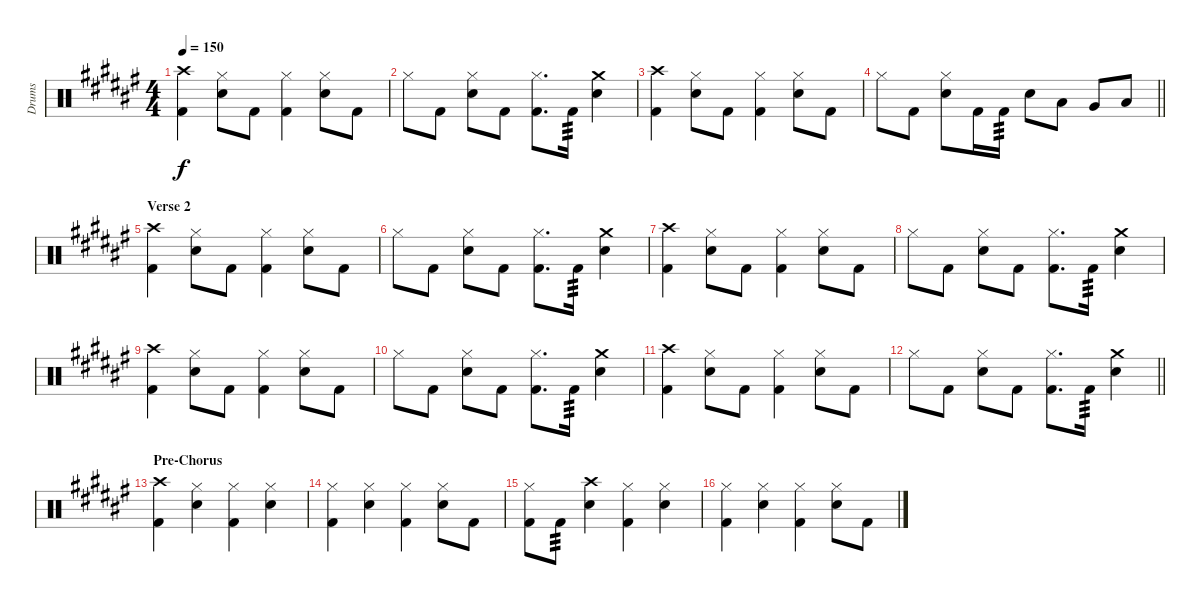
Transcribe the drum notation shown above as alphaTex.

\track ("Drums" "Drums") {instrument percussion}
\staff {score}
\articulation defaults
\ts (4 4)
\tempo 150
\clef neutral
\ks f#
("Crash high (hit)" "Kick (hit) 2").4{dy f} ("Electric Snare (hit)" "Hi-Hat (closed)").8 "Kick (hit) 2".8 ("Hi-Hat (closed)" "Kick (hit) 2").4 ("Electric Snare (hit)" "Hi-Hat (closed)").8 "Kick (hit) 2".8 |
"Hi-Hat (closed)".8 "Kick (hit) 2".8 ("Electric Snare (hit)" "Hi-Hat (closed)").8 "Kick (hit) 2".8 ("Hi-Hat (closed)" "Kick (hit) 2").8{d} "Kick (hit) 2".16{tp 3} ("Crash medium (hit)" "Electric Snare (hit)").4 |
("Crash high (hit)" "Kick (hit) 2").4 ("Electric Snare (hit)" "Hi-Hat (closed)").8 "Kick (hit) 2".8 ("Hi-Hat (closed)" "Kick (hit) 2").4 ("Electric Snare (hit)" "Hi-Hat (closed)").8 "Kick (hit) 2".8 |
\barLineRight lightlight "Hi-Hat (closed)".8 "Kick (hit) 2".8
("Electric Snare (hit)" "Hi-Hat (closed)").8 "Kick (hit) 2".16 "Kick (hit) 2".16{tp 3} "Electric Snare (hit)".8 "Low Floor Tom (hit)".8 "Very Low Tom (hit)".8 "Low Floor Tom (hit)".8 |
\section ("" "Verse 2")
("Crash high (hit)" "Kick (hit) 2").4 ("Electric Snare (hit)" "Hi-Hat (closed)").8 "Kick (hit) 2".8 ("Hi-Hat (closed)" "Kick (hit) 2").4 ("Electric Snare (hit)" "Hi-Hat (closed)").8 "Kick (hit) 2".8 |
"Hi-Hat (closed)".8 "Kick (hit) 2".8 ("Electric Snare (hit)" "Hi-Hat (closed)").8 "Kick (hit) 2".8 ("Hi-Hat (closed)" "Kick (hit) 2").8{d} "Kick (hit) 2".16{tp 3} ("Crash medium (hit)" "Electric Snare (hit)").4 |
("Crash high (hit)" "Kick (hit) 2").4 ("Electric Snare (hit)" "Hi-Hat (closed)").8 "Kick (hit) 2".8 ("Hi-Hat (closed)" "Kick (hit) 2").4 ("Electric Snare (hit)" "Hi-Hat (closed)").8 "Kick (hit) 2".8 |
"Hi-Hat (closed)".8 "Kick (hit) 2".8 ("Electric Snare (hit)" "Hi-Hat (closed)").8 "Kick (hit) 2".8 ("Hi-Hat (closed)" "Kick (hit) 2").8{d} "Kick (hit) 2".16{tp 3} ("Crash medium (hit)" "Electric Snare (hit)").4 |
("Crash high (hit)" "Kick (hit) 2").4 ("Electric Snare (hit)" "Hi-Hat (closed)").8 "Kick (hit) 2".8 ("Hi-Hat (closed)" "Kick (hit) 2").4 ("Electric Snare (hit)" "Hi-Hat (closed)").8 "Kick (hit) 2".8 |
"Hi-Hat (closed)".8 "Kick (hit) 2".8 ("Electric Snare (hit)" "Hi-Hat (closed)").8 "Kick (hit) 2".8 ("Hi-Hat (closed)" "Kick (hit) 2").8{d} "Kick (hit) 2".16{tp 3} ("Crash medium (hit)" "Electric Snare (hit)").4 |
("Crash high (hit)" "Kick (hit) 2").4 ("Electric Snare (hit)" "Hi-Hat (closed)").8 "Kick (hit) 2".8 ("Hi-Hat (closed)" "Kick (hit) 2").4 ("Electric Snare (hit)" "Hi-Hat (closed)").8 "Kick (hit) 2".8 |
\barLineRight lightlight "Hi-Hat (closed)".8 "Kick (hit) 2".8
("Electric Snare (hit)" "Hi-Hat (closed)").8 "Kick (hit) 2".8 ("Hi-Hat (closed)" "Kick (hit) 2").8{d} "Kick (hit) 2".16{tp 3} ("Crash medium (hit)" "Electric Snare (hit)").4 |
\section ("" "Pre-Chorus")
("Crash high (hit)" "Kick (hit) 2").4 ("Electric Snare (hit)" "Hi-Hat (closed)").4 ("Hi-Hat (closed)" "Kick (hit) 2").4 ("Electric Snare (hit)" "Hi-Hat (closed)").4 |
("Hi-Hat (closed)" "Kick (hit) 2").4 ("Electric Snare (hit)" "Hi-Hat (closed)").4 ("Hi-Hat (closed)" "Kick (hit) 2").4 ("Electric Snare (hit)" "Hi-Hat (closed)").8 "Kick (hit) 2".8 |
("Hi-Hat (closed)" "Kick (hit) 2").8 "Kick (hit) 2".8{tp 3} ("Crash high (hit)" "Electric Snare (hit)").4 ("Hi-Hat (closed)" "Kick (hit) 2").4 ("Electric Snare (hit)" "Hi-Hat (closed)").4 |
("Hi-Hat (closed)" "Kick (hit) 2").4 ("Electric Snare (hit)" "Hi-Hat (closed)").4 ("Hi-Hat (closed)" "Kick (hit) 2").4 ("Electric Snare (hit)" "Hi-Hat (closed)").8 "Kick (hit) 2".8
